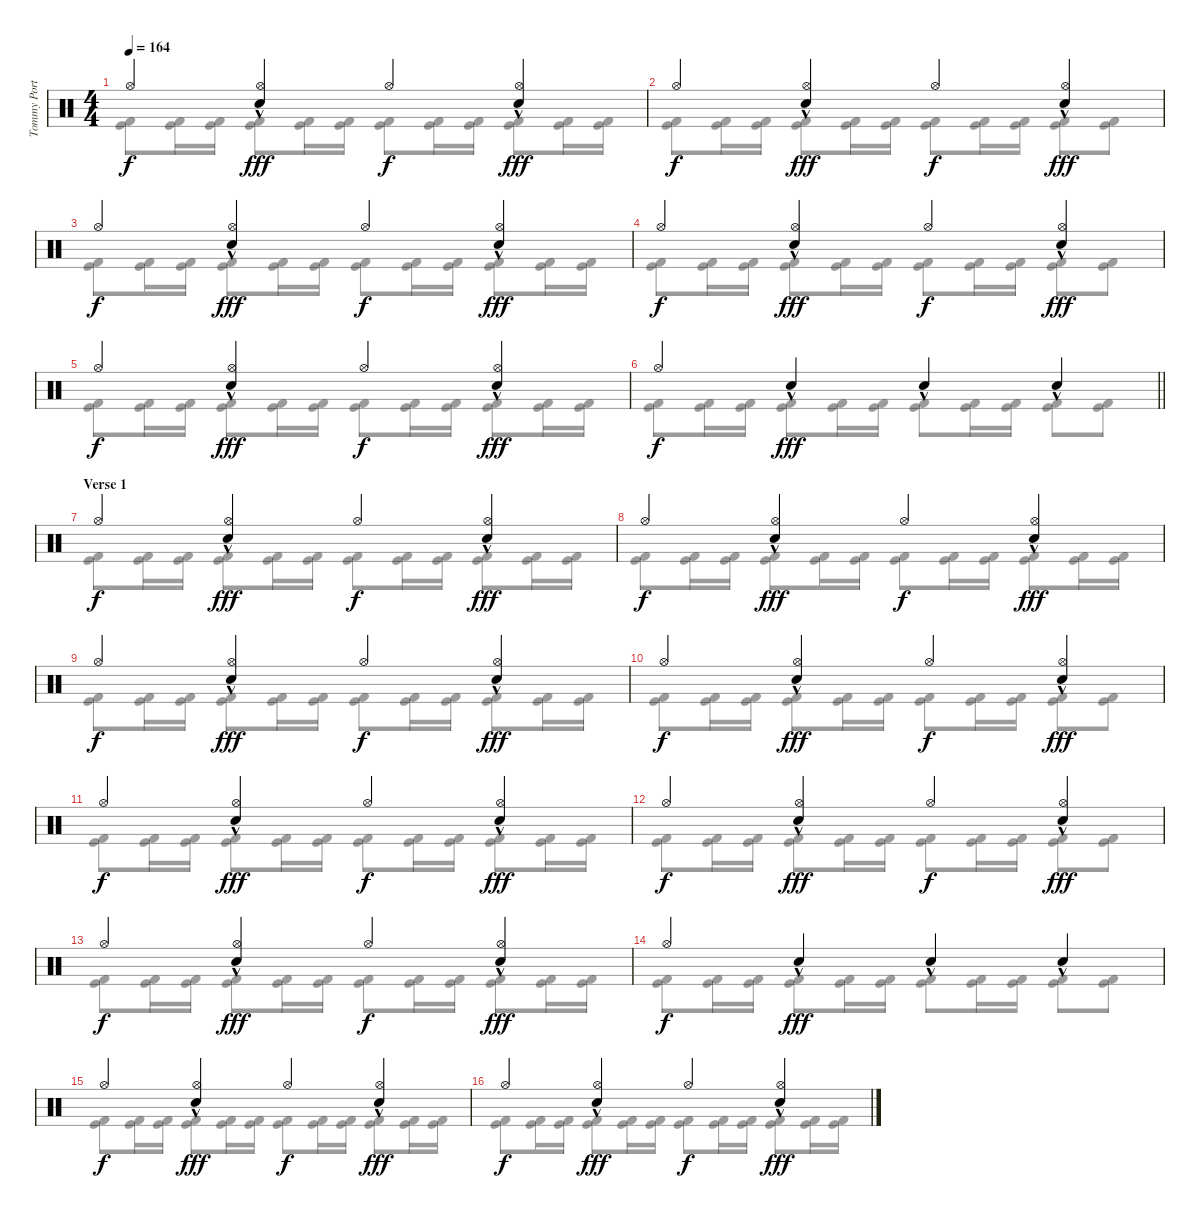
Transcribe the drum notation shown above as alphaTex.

\track ("Tommy Portimo" "Tommy Port") {instrument percussion}
\staff {score}
\articulation defaults
\voice
\ts (4 4)
\tempo 164
\clef neutral
\ks c "Hi-Hat (open)".4{dy f}
("Snare (hit) 2"{hac} "Hi-Hat (open)").4{dy fff} "Hi-Hat (open)".4{dy f} ("Snare (hit) 2"{hac} "Hi-Hat (open)").4{dy fff} |
"Hi-Hat (open)".4{dy f} ("Snare (hit) 2"{hac} "Hi-Hat (open)").4{dy fff} "Hi-Hat (open)".4{dy f} ("Snare (hit) 2"{hac} "Hi-Hat (open)").4{dy fff} |
"Hi-Hat (open)".4{dy f} ("Snare (hit) 2"{hac} "Hi-Hat (open)").4{dy fff} "Hi-Hat (open)".4{dy f} ("Snare (hit) 2"{hac} "Hi-Hat (open)").4{dy fff} |
"Hi-Hat (open)".4{dy f} ("Snare (hit) 2"{hac} "Hi-Hat (open)").4{dy fff} "Hi-Hat (open)".4{dy f} ("Snare (hit) 2"{hac} "Hi-Hat (open)").4{dy fff} |
"Hi-Hat (open)".4{dy f} ("Snare (hit) 2"{hac} "Hi-Hat (open)").4{dy fff} "Hi-Hat (open)".4{dy f} ("Snare (hit) 2"{hac} "Hi-Hat (open)").4{dy fff} |
\barLineRight lightlight "Hi-Hat (open)".4{dy f} "Snare (hit) 2"{hac}.4{dy fff} "Snare (hit) 2"{hac}.4 "Snare (hit) 2"{hac}.4
|
\section ("" "Verse 1")
"Hi-Hat (open)".4{dy f} ("Snare (hit) 2"{hac} "Hi-Hat (open)").4{dy fff} "Hi-Hat (open)".4{dy f} ("Snare (hit) 2"{hac} "Hi-Hat (open)").4{dy fff} |
"Hi-Hat (open)".4{dy f} ("Snare (hit) 2"{hac} "Hi-Hat (open)").4{dy fff} "Hi-Hat (open)".4{dy f} ("Snare (hit) 2"{hac} "Hi-Hat (open)").4{dy fff} |
"Hi-Hat (open)".4{dy f} ("Snare (hit) 2"{hac} "Hi-Hat (open)").4{dy fff} "Hi-Hat (open)".4{dy f} ("Snare (hit) 2"{hac} "Hi-Hat (open)").4{dy fff} |
"Hi-Hat (open)".4{dy f} ("Snare (hit) 2"{hac} "Hi-Hat (open)").4{dy fff} "Hi-Hat (open)".4{dy f} ("Snare (hit) 2"{hac} "Hi-Hat (open)").4{dy fff} |
"Hi-Hat (open)".4{dy f} ("Snare (hit) 2"{hac} "Hi-Hat (open)").4{dy fff} "Hi-Hat (open)".4{dy f} ("Snare (hit) 2"{hac} "Hi-Hat (open)").4{dy fff} |
"Hi-Hat (open)".4{dy f} ("Snare (hit) 2"{hac} "Hi-Hat (open)").4{dy fff} "Hi-Hat (open)".4{dy f} ("Snare (hit) 2"{hac} "Hi-Hat (open)").4{dy fff} |
"Hi-Hat (open)".4{dy f} ("Snare (hit) 2"{hac} "Hi-Hat (open)").4{dy fff} "Hi-Hat (open)".4{dy f} ("Snare (hit) 2"{hac} "Hi-Hat (open)").4{dy fff} |
"Hi-Hat (open)".4{dy f} "Snare (hit) 2"{hac}.4{dy fff} "Snare (hit) 2"{hac}.4 "Snare (hit) 2"{hac}.4 |
"Hi-Hat (open)".4{dy f} ("Snare (hit) 2"{hac} "Hi-Hat (open)").4{dy fff} "Hi-Hat (open)".4{dy f} ("Snare (hit) 2"{hac} "Hi-Hat (open)").4{dy fff} |
"Hi-Hat (open)".4{dy f} ("Snare (hit) 2"{hac} "Hi-Hat (open)").4{dy fff} "Hi-Hat (open)".4{dy f} ("Snare (hit) 2"{hac} "Hi-Hat (open)").4{dy fff}
\voice
\clef neutral
\ottava regular
\simile none
\ks c
("Kick (hit)" "Kick (hit) 2").8{dy f} ("Kick (hit)" "Kick (hit) 2").16 ("Kick (hit)" "Kick (hit) 2").16 ("Kick (hit)" "Kick (hit) 2").8 ("Kick (hit)" "Kick (hit) 2").16 ("Kick (hit)" "Kick (hit) 2").16 ("Kick (hit)" "Kick (hit) 2").8 ("Kick (hit)" "Kick (hit) 2").16 ("Kick (hit)" "Kick (hit) 2").16 ("Kick (hit)" "Kick (hit) 2").8 ("Kick (hit)" "Kick (hit) 2").16 ("Kick (hit)" "Kick (hit) 2").16 |
("Kick (hit)" "Kick (hit) 2").8 ("Kick (hit)" "Kick (hit) 2").16 ("Kick (hit)" "Kick (hit) 2").16 ("Kick (hit)" "Kick (hit) 2").8 ("Kick (hit)" "Kick (hit) 2").16 ("Kick (hit)" "Kick (hit) 2").16 ("Kick (hit)" "Kick (hit) 2").8 ("Kick (hit)" "Kick (hit) 2").16 ("Kick (hit)" "Kick (hit) 2").16 ("Kick (hit)" "Kick (hit) 2").8 ("Kick (hit)" "Kick (hit) 2").8 |
("Kick (hit)" "Kick (hit) 2").8 ("Kick (hit)" "Kick (hit) 2").16 ("Kick (hit)" "Kick (hit) 2").16 ("Kick (hit)" "Kick (hit) 2").8 ("Kick (hit)" "Kick (hit) 2").16 ("Kick (hit)" "Kick (hit) 2").16 ("Kick (hit)" "Kick (hit) 2").8 ("Kick (hit)" "Kick (hit) 2").16 ("Kick (hit)" "Kick (hit) 2").16 ("Kick (hit)" "Kick (hit) 2").8 ("Kick (hit)" "Kick (hit) 2").16 ("Kick (hit)" "Kick (hit) 2").16 |
("Kick (hit)" "Kick (hit) 2").8 ("Kick (hit)" "Kick (hit) 2").16 ("Kick (hit)" "Kick (hit) 2").16 ("Kick (hit)" "Kick (hit) 2").8 ("Kick (hit)" "Kick (hit) 2").16 ("Kick (hit)" "Kick (hit) 2").16 ("Kick (hit)" "Kick (hit) 2").8 ("Kick (hit)" "Kick (hit) 2").16 ("Kick (hit)" "Kick (hit) 2").16 ("Kick (hit)" "Kick (hit) 2").8 ("Kick (hit)" "Kick (hit) 2").8 |
("Kick (hit)" "Kick (hit) 2").8 ("Kick (hit)" "Kick (hit) 2").16 ("Kick (hit)" "Kick (hit) 2").16 ("Kick (hit)" "Kick (hit) 2").8 ("Kick (hit)" "Kick (hit) 2").16 ("Kick (hit)" "Kick (hit) 2").16 ("Kick (hit)" "Kick (hit) 2").8 ("Kick (hit)" "Kick (hit) 2").16 ("Kick (hit)" "Kick (hit) 2").16 ("Kick (hit)" "Kick (hit) 2").8 ("Kick (hit)" "Kick (hit) 2").16 ("Kick (hit)" "Kick (hit) 2").16 |
\barLineRight lightlight
("Kick (hit)" "Kick (hit) 2").8 ("Kick (hit)" "Kick (hit) 2").16 ("Kick (hit)" "Kick (hit) 2").16 ("Kick (hit)" "Kick (hit) 2").8 ("Kick (hit)" "Kick (hit) 2").16 ("Kick (hit)" "Kick (hit) 2").16 ("Kick (hit)" "Kick (hit) 2").8 ("Kick (hit)" "Kick (hit) 2").16 ("Kick (hit)" "Kick (hit) 2").16 ("Kick (hit)" "Kick (hit) 2").8 ("Kick (hit)" "Kick (hit) 2").8 |
("Kick (hit)" "Kick (hit) 2").8 ("Kick (hit)" "Kick (hit) 2").16 ("Kick (hit)" "Kick (hit) 2").16 ("Kick (hit)" "Kick (hit) 2").8 ("Kick (hit)" "Kick (hit) 2").16 ("Kick (hit)" "Kick (hit) 2").16 ("Kick (hit)" "Kick (hit) 2").8 ("Kick (hit)" "Kick (hit) 2").16 ("Kick (hit)" "Kick (hit) 2").16 ("Kick (hit)" "Kick (hit) 2").8 ("Kick (hit)" "Kick (hit) 2").16 ("Kick (hit)" "Kick (hit) 2").16 |
("Kick (hit)" "Kick (hit) 2").8 ("Kick (hit)" "Kick (hit) 2").16 ("Kick (hit)" "Kick (hit) 2").16 ("Kick (hit)" "Kick (hit) 2").8 ("Kick (hit)" "Kick (hit) 2").16 ("Kick (hit)" "Kick (hit) 2").16 ("Kick (hit)" "Kick (hit) 2").8 ("Kick (hit)" "Kick (hit) 2").16 ("Kick (hit)" "Kick (hit) 2").16 ("Kick (hit)" "Kick (hit) 2").8 ("Kick (hit)" "Kick (hit) 2").16 ("Kick (hit)" "Kick (hit) 2").16 |
("Kick (hit)" "Kick (hit) 2").8 ("Kick (hit)" "Kick (hit) 2").16 ("Kick (hit)" "Kick (hit) 2").16 ("Kick (hit)" "Kick (hit) 2").8 ("Kick (hit)" "Kick (hit) 2").16 ("Kick (hit)" "Kick (hit) 2").16 ("Kick (hit)" "Kick (hit) 2").8 ("Kick (hit)" "Kick (hit) 2").16 ("Kick (hit)" "Kick (hit) 2").16 ("Kick (hit)" "Kick (hit) 2").8 ("Kick (hit)" "Kick (hit) 2").16 ("Kick (hit)" "Kick (hit) 2").16 |
("Kick (hit)" "Kick (hit) 2").8 ("Kick (hit)" "Kick (hit) 2").16 ("Kick (hit)" "Kick (hit) 2").16 ("Kick (hit)" "Kick (hit) 2").8 ("Kick (hit)" "Kick (hit) 2").16 ("Kick (hit)" "Kick (hit) 2").16 ("Kick (hit)" "Kick (hit) 2").8 ("Kick (hit)" "Kick (hit) 2").16 ("Kick (hit)" "Kick (hit) 2").16 ("Kick (hit)" "Kick (hit) 2").8 ("Kick (hit)" "Kick (hit) 2").8 |
("Kick (hit)" "Kick (hit) 2").8 ("Kick (hit)" "Kick (hit) 2").16 ("Kick (hit)" "Kick (hit) 2").16 ("Kick (hit)" "Kick (hit) 2").8 ("Kick (hit)" "Kick (hit) 2").16 ("Kick (hit)" "Kick (hit) 2").16 ("Kick (hit)" "Kick (hit) 2").8 ("Kick (hit)" "Kick (hit) 2").16 ("Kick (hit)" "Kick (hit) 2").16 ("Kick (hit)" "Kick (hit) 2").8 ("Kick (hit)" "Kick (hit) 2").16 ("Kick (hit)" "Kick (hit) 2").16 |
("Kick (hit)" "Kick (hit) 2").8 ("Kick (hit)" "Kick (hit) 2").16 ("Kick (hit)" "Kick (hit) 2").16 ("Kick (hit)" "Kick (hit) 2").8 ("Kick (hit)" "Kick (hit) 2").16 ("Kick (hit)" "Kick (hit) 2").16 ("Kick (hit)" "Kick (hit) 2").8 ("Kick (hit)" "Kick (hit) 2").16 ("Kick (hit)" "Kick (hit) 2").16 ("Kick (hit)" "Kick (hit) 2").8 ("Kick (hit)" "Kick (hit) 2").8 |
("Kick (hit)" "Kick (hit) 2").8 ("Kick (hit)" "Kick (hit) 2").16 ("Kick (hit)" "Kick (hit) 2").16 ("Kick (hit)" "Kick (hit) 2").8 ("Kick (hit)" "Kick (hit) 2").16 ("Kick (hit)" "Kick (hit) 2").16 ("Kick (hit)" "Kick (hit) 2").8 ("Kick (hit)" "Kick (hit) 2").16 ("Kick (hit)" "Kick (hit) 2").16 ("Kick (hit)" "Kick (hit) 2").8 ("Kick (hit)" "Kick (hit) 2").16 ("Kick (hit)" "Kick (hit) 2").16 |
("Kick (hit)" "Kick (hit) 2").8 ("Kick (hit)" "Kick (hit) 2").16 ("Kick (hit)" "Kick (hit) 2").16 ("Kick (hit)" "Kick (hit) 2").8 ("Kick (hit)" "Kick (hit) 2").16 ("Kick (hit)" "Kick (hit) 2").16 ("Kick (hit)" "Kick (hit) 2").8 ("Kick (hit)" "Kick (hit) 2").16 ("Kick (hit)" "Kick (hit) 2").16 ("Kick (hit)" "Kick (hit) 2").8 ("Kick (hit)" "Kick (hit) 2").8 |
("Kick (hit)" "Kick (hit) 2").8 ("Kick (hit)" "Kick (hit) 2").16 ("Kick (hit)" "Kick (hit) 2").16 ("Kick (hit)" "Kick (hit) 2").8 ("Kick (hit)" "Kick (hit) 2").16 ("Kick (hit)" "Kick (hit) 2").16 ("Kick (hit)" "Kick (hit) 2").8 ("Kick (hit)" "Kick (hit) 2").16 ("Kick (hit)" "Kick (hit) 2").16 ("Kick (hit)" "Kick (hit) 2").8 ("Kick (hit)" "Kick (hit) 2").16 ("Kick (hit)" "Kick (hit) 2").16 |
("Kick (hit)" "Kick (hit) 2").8 ("Kick (hit)" "Kick (hit) 2").16 ("Kick (hit)" "Kick (hit) 2").16 ("Kick (hit)" "Kick (hit) 2").8 ("Kick (hit)" "Kick (hit) 2").16 ("Kick (hit)" "Kick (hit) 2").16 ("Kick (hit)" "Kick (hit) 2").8 ("Kick (hit)" "Kick (hit) 2").16 ("Kick (hit)" "Kick (hit) 2").16 ("Kick (hit)" "Kick (hit) 2").8 ("Kick (hit)" "Kick (hit) 2").16 ("Kick (hit)" "Kick (hit) 2").16
